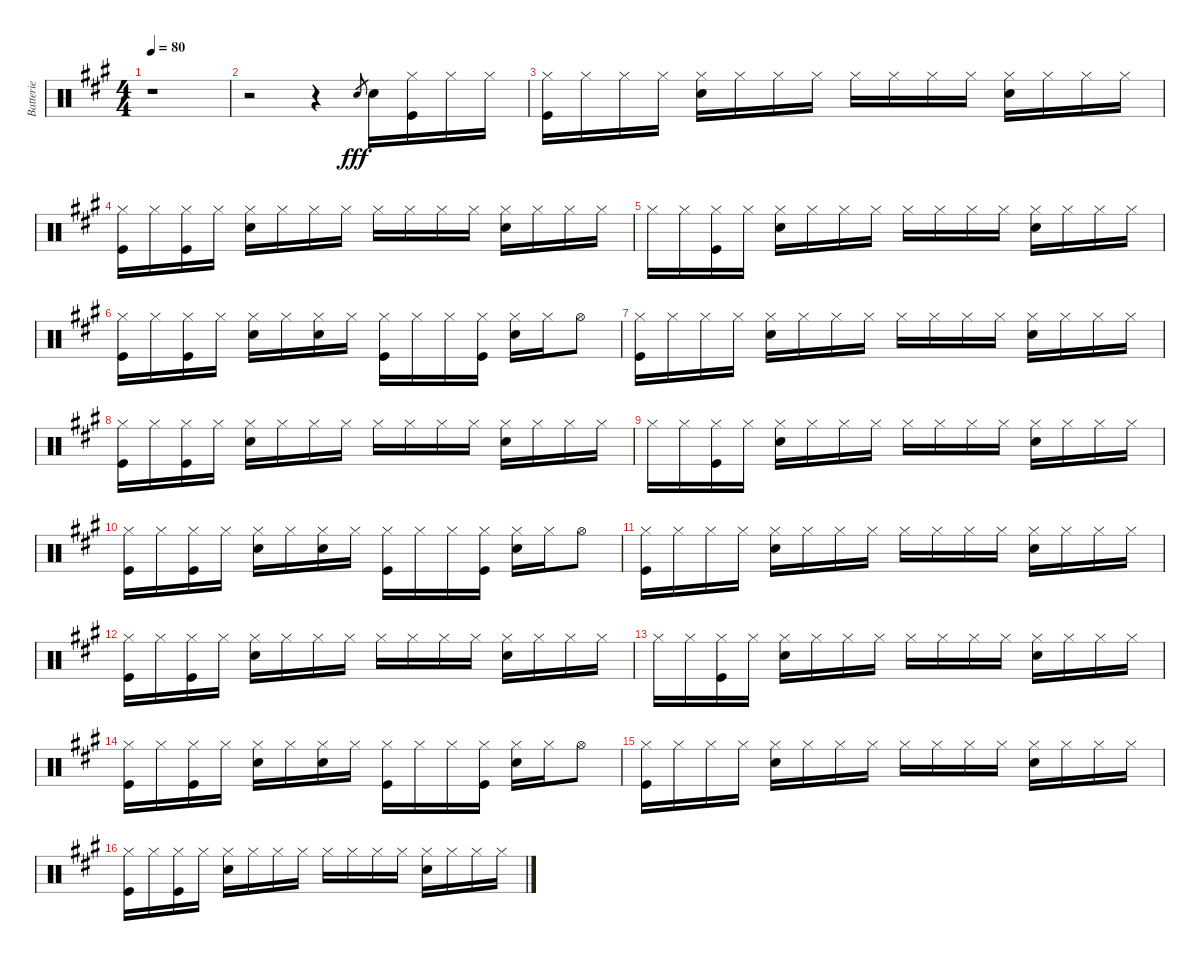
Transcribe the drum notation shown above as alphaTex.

\track ("Batterie" "Batterie") {instrument percussion}
\staff {score}
\articulation defaults
\ts (4 4)
\tempo 80
\clef neutral
\ks a
r.1{dy fff} |
r.2 r.4 "Snare (hit) 2".8{gr} "Snare (hit) 2".16 ("Hi-Hat (closed)" "Kick (hit)").16 "Hi-Hat (closed)".16 "Hi-Hat (closed)".16 |
("Hi-Hat (closed)" "Kick (hit)").16 "Hi-Hat (closed)".16 "Hi-Hat (closed)".16 "Hi-Hat (closed)".16 ("Hi-Hat (closed)" "Snare (hit) 2").16 "Hi-Hat (closed)".16 "Hi-Hat (closed)".16 "Hi-Hat (closed)".16 "Hi-Hat (closed)".16 "Hi-Hat (closed)".16 "Hi-Hat (closed)".16 "Hi-Hat (closed)".16 ("Hi-Hat (closed)" "Snare (hit) 2").16 "Hi-Hat (closed)".16 "Hi-Hat (closed)".16 "Hi-Hat (closed)".16 |
("Hi-Hat (closed)" "Kick (hit)").16 "Hi-Hat (closed)".16 ("Hi-Hat (closed)" "Kick (hit)").16 "Hi-Hat (closed)".16 ("Hi-Hat (closed)" "Snare (hit) 2").16 "Hi-Hat (closed)".16 "Hi-Hat (closed)".16 "Hi-Hat (closed)".16 "Hi-Hat (closed)".16 "Hi-Hat (closed)".16 "Hi-Hat (closed)".16 "Hi-Hat (closed)".16 ("Hi-Hat (closed)" "Snare (hit) 2").16 "Hi-Hat (closed)".16 "Hi-Hat (closed)".16 "Hi-Hat (closed)".16 |
"Hi-Hat (closed)".16 "Hi-Hat (closed)".16 ("Hi-Hat (closed)" "Kick (hit)").16 "Hi-Hat (closed)".16 ("Hi-Hat (closed)" "Snare (hit) 2").16 "Hi-Hat (closed)".16 "Hi-Hat (closed)".16 "Hi-Hat (closed)".16 "Hi-Hat (closed)".16 "Hi-Hat (closed)".16 "Hi-Hat (closed)".16 "Hi-Hat (closed)".16 ("Hi-Hat (closed)" "Snare (hit) 2").16 "Hi-Hat (closed)".16 "Hi-Hat (closed)".16 "Hi-Hat (closed)".16 |
("Hi-Hat (closed)" "Kick (hit)").16 "Hi-Hat (closed)".16 ("Hi-Hat (closed)" "Kick (hit)").16 "Hi-Hat (closed)".16 ("Hi-Hat (closed)" "Snare (hit) 2").16 "Hi-Hat (closed)".16 ("Hi-Hat (closed)" "Snare (hit) 2").16 "Hi-Hat (closed)".16 ("Hi-Hat (closed)" "Kick (hit)").16 "Hi-Hat (closed)".16 "Hi-Hat (closed)".16 ("Hi-Hat (closed)" "Kick (hit)").16 ("Hi-Hat (closed)" "Snare (hit) 2").16 "Hi-Hat (closed)".16 "Hi-Hat (open)".8 |
("Hi-Hat (closed)" "Kick (hit)").16 "Hi-Hat (closed)".16 "Hi-Hat (closed)".16 "Hi-Hat (closed)".16 ("Hi-Hat (closed)" "Snare (hit) 2").16 "Hi-Hat (closed)".16 "Hi-Hat (closed)".16 "Hi-Hat (closed)".16 "Hi-Hat (closed)".16 "Hi-Hat (closed)".16 "Hi-Hat (closed)".16 "Hi-Hat (closed)".16 ("Hi-Hat (closed)" "Snare (hit) 2").16 "Hi-Hat (closed)".16 "Hi-Hat (closed)".16 "Hi-Hat (closed)".16 |
("Hi-Hat (closed)" "Kick (hit)").16 "Hi-Hat (closed)".16 ("Hi-Hat (closed)" "Kick (hit)").16 "Hi-Hat (closed)".16 ("Hi-Hat (closed)" "Snare (hit) 2").16 "Hi-Hat (closed)".16 "Hi-Hat (closed)".16 "Hi-Hat (closed)".16 "Hi-Hat (closed)".16 "Hi-Hat (closed)".16 "Hi-Hat (closed)".16 "Hi-Hat (closed)".16 ("Hi-Hat (closed)" "Snare (hit) 2").16 "Hi-Hat (closed)".16 "Hi-Hat (closed)".16 "Hi-Hat (closed)".16 |
"Hi-Hat (closed)".16 "Hi-Hat (closed)".16 ("Hi-Hat (closed)" "Kick (hit)").16 "Hi-Hat (closed)".16 ("Hi-Hat (closed)" "Snare (hit) 2").16 "Hi-Hat (closed)".16 "Hi-Hat (closed)".16 "Hi-Hat (closed)".16 "Hi-Hat (closed)".16 "Hi-Hat (closed)".16 "Hi-Hat (closed)".16 "Hi-Hat (closed)".16 ("Hi-Hat (closed)" "Snare (hit) 2").16 "Hi-Hat (closed)".16 "Hi-Hat (closed)".16 "Hi-Hat (closed)".16 |
("Hi-Hat (closed)" "Kick (hit)").16 "Hi-Hat (closed)".16 ("Hi-Hat (closed)" "Kick (hit)").16 "Hi-Hat (closed)".16 ("Hi-Hat (closed)" "Snare (hit) 2").16 "Hi-Hat (closed)".16 ("Hi-Hat (closed)" "Snare (hit) 2").16 "Hi-Hat (closed)".16 ("Hi-Hat (closed)" "Kick (hit)").16 "Hi-Hat (closed)".16 "Hi-Hat (closed)".16 ("Hi-Hat (closed)" "Kick (hit)").16 ("Hi-Hat (closed)" "Snare (hit) 2").16 "Hi-Hat (closed)".16 "Hi-Hat (open)".8 |
("Hi-Hat (closed)" "Kick (hit)").16 "Hi-Hat (closed)".16 "Hi-Hat (closed)".16 "Hi-Hat (closed)".16 ("Hi-Hat (closed)" "Snare (hit) 2").16 "Hi-Hat (closed)".16 "Hi-Hat (closed)".16 "Hi-Hat (closed)".16 "Hi-Hat (closed)".16 "Hi-Hat (closed)".16 "Hi-Hat (closed)".16 "Hi-Hat (closed)".16 ("Hi-Hat (closed)" "Snare (hit) 2").16 "Hi-Hat (closed)".16 "Hi-Hat (closed)".16 "Hi-Hat (closed)".16 |
("Hi-Hat (closed)" "Kick (hit)").16 "Hi-Hat (closed)".16 ("Hi-Hat (closed)" "Kick (hit)").16 "Hi-Hat (closed)".16 ("Hi-Hat (closed)" "Snare (hit) 2").16 "Hi-Hat (closed)".16 "Hi-Hat (closed)".16 "Hi-Hat (closed)".16 "Hi-Hat (closed)".16 "Hi-Hat (closed)".16 "Hi-Hat (closed)".16 "Hi-Hat (closed)".16 ("Hi-Hat (closed)" "Snare (hit) 2").16 "Hi-Hat (closed)".16 "Hi-Hat (closed)".16 "Hi-Hat (closed)".16 |
"Hi-Hat (closed)".16 "Hi-Hat (closed)".16 ("Hi-Hat (closed)" "Kick (hit)").16 "Hi-Hat (closed)".16 ("Hi-Hat (closed)" "Snare (hit) 2").16 "Hi-Hat (closed)".16 "Hi-Hat (closed)".16 "Hi-Hat (closed)".16 "Hi-Hat (closed)".16 "Hi-Hat (closed)".16 "Hi-Hat (closed)".16 "Hi-Hat (closed)".16 ("Hi-Hat (closed)" "Snare (hit) 2").16 "Hi-Hat (closed)".16 "Hi-Hat (closed)".16 "Hi-Hat (closed)".16 |
("Hi-Hat (closed)" "Kick (hit)").16 "Hi-Hat (closed)".16 ("Hi-Hat (closed)" "Kick (hit)").16 "Hi-Hat (closed)".16 ("Hi-Hat (closed)" "Snare (hit) 2").16 "Hi-Hat (closed)".16 ("Hi-Hat (closed)" "Snare (hit) 2").16 "Hi-Hat (closed)".16 ("Hi-Hat (closed)" "Kick (hit)").16 "Hi-Hat (closed)".16 "Hi-Hat (closed)".16 ("Hi-Hat (closed)" "Kick (hit)").16 ("Hi-Hat (closed)" "Snare (hit) 2").16 "Hi-Hat (closed)".16 "Hi-Hat (open)".8 |
("Hi-Hat (closed)" "Kick (hit)").16 "Hi-Hat (closed)".16 "Hi-Hat (closed)".16 "Hi-Hat (closed)".16 ("Hi-Hat (closed)" "Snare (hit) 2").16 "Hi-Hat (closed)".16 "Hi-Hat (closed)".16 "Hi-Hat (closed)".16 "Hi-Hat (closed)".16 "Hi-Hat (closed)".16 "Hi-Hat (closed)".16 "Hi-Hat (closed)".16 ("Hi-Hat (closed)" "Snare (hit) 2").16 "Hi-Hat (closed)".16 "Hi-Hat (closed)".16 "Hi-Hat (closed)".16 |
("Hi-Hat (closed)" "Kick (hit)").16 "Hi-Hat (closed)".16 ("Hi-Hat (closed)" "Kick (hit)").16 "Hi-Hat (closed)".16 ("Hi-Hat (closed)" "Snare (hit) 2").16 "Hi-Hat (closed)".16 "Hi-Hat (closed)".16 "Hi-Hat (closed)".16 "Hi-Hat (closed)".16 "Hi-Hat (closed)".16 "Hi-Hat (closed)".16 "Hi-Hat (closed)".16 ("Hi-Hat (closed)" "Snare (hit) 2").16 "Hi-Hat (closed)".16 "Hi-Hat (closed)".16 "Hi-Hat (closed)".16
